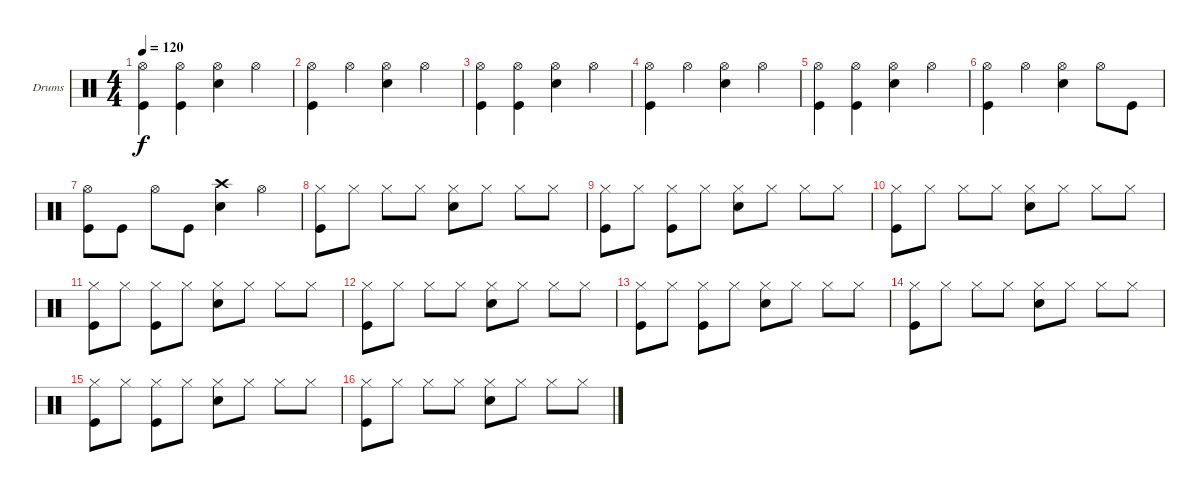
\bracketExtendMode groupsimilarinstruments
\firstSystemTrackNameOrientation horizontal
\otherSystemsTrackNameOrientation horizontal
\track ("Drumkit (Christoph)" "Drums") {instrument percussion}
\staff {score}
\articulation defaults
\ts (4 4)
\tempo 120
\clef neutral
\ks c
("Hi-Hat (open)" "Kick (hit)").4{dy f} ("Hi-Hat (open)" "Kick (hit)").4 ("Hi-Hat (open)" "Snare (hit) 2").4 "Hi-Hat (open)".4 |
("Hi-Hat (open)" "Kick (hit)").4 "Hi-Hat (open)".4 ("Hi-Hat (open)" "Snare (hit) 2").4 "Hi-Hat (open)".4 |
("Hi-Hat (open)" "Kick (hit)").4 ("Hi-Hat (open)" "Kick (hit)").4 ("Hi-Hat (open)" "Snare (hit) 2").4 "Hi-Hat (open)".4 |
("Hi-Hat (open)" "Kick (hit)").4 "Hi-Hat (open)".4 ("Hi-Hat (open)" "Snare (hit) 2").4 "Hi-Hat (open)".4 |
("Hi-Hat (open)" "Kick (hit)").4 ("Hi-Hat (open)" "Kick (hit)").4 ("Hi-Hat (open)" "Snare (hit) 2").4 "Hi-Hat (open)".4 |
("Hi-Hat (open)" "Kick (hit)").4 "Hi-Hat (open)".4 ("Hi-Hat (open)" "Snare (hit) 2").4 "Hi-Hat (open)".8 "Kick (hit)".8 |
("Hi-Hat (open)" "Kick (hit)").8 "Kick (hit)".8 "Hi-Hat (open)".8 "Kick (hit)".8 ("Crash high (hit)" "Snare (hit) 2").4 "Hi-Hat (open)".4 |
("Hi-Hat (closed)" "Kick (hit)").8 "Hi-Hat (closed)".8 "Hi-Hat (closed)".8 "Hi-Hat (closed)".8 ("Hi-Hat (closed)" "Snare (hit) 2").8 "Hi-Hat (closed)".8 "Hi-Hat (closed)".8 "Hi-Hat (closed)".8 |
("Hi-Hat (closed)" "Kick (hit)").8 "Hi-Hat (closed)".8 ("Hi-Hat (closed)" "Kick (hit)").8 "Hi-Hat (closed)".8 ("Hi-Hat (closed)" "Snare (hit) 2").8 "Hi-Hat (closed)".8 "Hi-Hat (closed)".8 "Hi-Hat (closed)".8 |
("Hi-Hat (closed)" "Kick (hit)").8 "Hi-Hat (closed)".8 "Hi-Hat (closed)".8 "Hi-Hat (closed)".8 ("Hi-Hat (closed)" "Snare (hit) 2").8 "Hi-Hat (closed)".8 "Hi-Hat (closed)".8 "Hi-Hat (closed)".8 |
("Hi-Hat (closed)" "Kick (hit)").8 "Hi-Hat (closed)".8 ("Hi-Hat (closed)" "Kick (hit)").8 "Hi-Hat (closed)".8 ("Hi-Hat (closed)" "Snare (hit) 2").8 "Hi-Hat (closed)".8 "Hi-Hat (closed)".8 "Hi-Hat (closed)".8 |
("Hi-Hat (closed)" "Kick (hit)").8 "Hi-Hat (closed)".8 "Hi-Hat (closed)".8 "Hi-Hat (closed)".8 ("Hi-Hat (closed)" "Snare (hit) 2").8 "Hi-Hat (closed)".8 "Hi-Hat (closed)".8 "Hi-Hat (closed)".8 |
("Hi-Hat (closed)" "Kick (hit)").8 "Hi-Hat (closed)".8 ("Hi-Hat (closed)" "Kick (hit)").8 "Hi-Hat (closed)".8 ("Hi-Hat (closed)" "Snare (hit) 2").8 "Hi-Hat (closed)".8 "Hi-Hat (closed)".8 "Hi-Hat (closed)".8 |
("Hi-Hat (closed)" "Kick (hit)").8 "Hi-Hat (closed)".8 "Hi-Hat (closed)".8 "Hi-Hat (closed)".8 ("Hi-Hat (closed)" "Snare (hit) 2").8 "Hi-Hat (closed)".8 "Hi-Hat (closed)".8 "Hi-Hat (closed)".8 |
("Hi-Hat (closed)" "Kick (hit)").8 "Hi-Hat (closed)".8 ("Hi-Hat (closed)" "Kick (hit)").8 "Hi-Hat (closed)".8 ("Hi-Hat (closed)" "Snare (hit) 2").8 "Hi-Hat (closed)".8 "Hi-Hat (closed)".8 "Hi-Hat (closed)".8 |
("Hi-Hat (closed)" "Kick (hit)").8 "Hi-Hat (closed)".8 "Hi-Hat (closed)".8 "Hi-Hat (closed)".8 ("Hi-Hat (closed)" "Snare (hit) 2").8 "Hi-Hat (closed)".8 "Hi-Hat (closed)".8 "Hi-Hat (closed)".8
